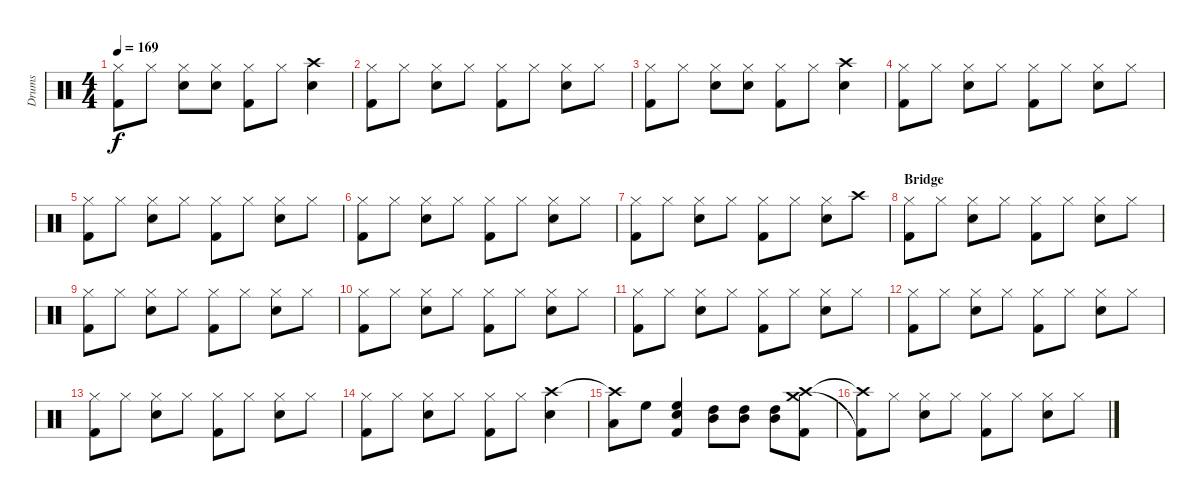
\track ("Drums" "Drums") {instrument percussion}
\staff {score}
\articulation defaults
\ts (4 4)
\tempo 169
\clef neutral
\ks c
("Hi-Hat (closed)" "Kick (hit) 2").8{dy f} "Hi-Hat (closed)".8 ("Hi-Hat (closed)" "Snare (hit) 2").8 ("Hi-Hat (closed)" "Snare (hit) 2").8 ("Hi-Hat (closed)" "Kick (hit) 2").8 "Hi-Hat (closed)".8 ("Crash high (hit)" "Snare (hit) 2").4 |
("Hi-Hat (closed)" "Kick (hit) 2").8 "Hi-Hat (closed)".8 ("Hi-Hat (closed)" "Snare (hit) 2").8 "Hi-Hat (closed)".8 ("Hi-Hat (closed)" "Kick (hit) 2").8 "Hi-Hat (closed)".8 ("Hi-Hat (closed)" "Snare (hit) 2").8 "Hi-Hat (closed)".8 |
("Hi-Hat (closed)" "Kick (hit) 2").8 "Hi-Hat (closed)".8 ("Hi-Hat (closed)" "Snare (hit) 2").8 ("Hi-Hat (closed)" "Snare (hit) 2").8 ("Hi-Hat (closed)" "Kick (hit) 2").8 "Hi-Hat (closed)".8 ("Crash high (hit)" "Snare (hit) 2").4 |
("Hi-Hat (closed)" "Kick (hit) 2").8 "Hi-Hat (closed)".8 ("Hi-Hat (closed)" "Snare (hit) 2").8 "Hi-Hat (closed)".8 ("Hi-Hat (closed)" "Kick (hit) 2").8 "Hi-Hat (closed)".8 ("Hi-Hat (closed)" "Snare (hit) 2").8 "Hi-Hat (closed)".8 |
("Hi-Hat (closed)" "Kick (hit) 2").8 "Hi-Hat (closed)".8 ("Hi-Hat (closed)" "Snare (hit) 2").8 "Hi-Hat (closed)".8 ("Hi-Hat (closed)" "Kick (hit) 2").8 "Hi-Hat (closed)".8 ("Hi-Hat (closed)" "Snare (hit) 2").8 "Hi-Hat (closed)".8 |
("Hi-Hat (closed)" "Kick (hit) 2").8 "Hi-Hat (closed)".8 ("Hi-Hat (closed)" "Snare (hit) 2").8 "Hi-Hat (closed)".8 ("Hi-Hat (closed)" "Kick (hit) 2").8 "Hi-Hat (closed)".8 ("Hi-Hat (closed)" "Snare (hit) 2").8 "Hi-Hat (closed)".8 |
("Hi-Hat (closed)" "Kick (hit) 2").8 "Hi-Hat (closed)".8 ("Hi-Hat (closed)" "Snare (hit) 2").8 "Hi-Hat (closed)".8 ("Hi-Hat (closed)" "Kick (hit) 2").8 "Hi-Hat (closed)".8 ("Hi-Hat (closed)" "Snare (hit) 2").8 "Crash high (hit)".8 |
\section ("" "Bridge")
("Hi-Hat (closed)" "Kick (hit) 2").8 "Hi-Hat (closed)".8 ("Hi-Hat (closed)" "Snare (hit) 2").8 "Hi-Hat (closed)".8 ("Hi-Hat (closed)" "Kick (hit) 2").8 "Hi-Hat (closed)".8 ("Hi-Hat (closed)" "Snare (hit) 2").8 "Hi-Hat (closed)".8 |
("Hi-Hat (closed)" "Kick (hit) 2").8 "Hi-Hat (closed)".8 ("Hi-Hat (closed)" "Snare (hit) 2").8 "Hi-Hat (closed)".8 ("Hi-Hat (closed)" "Kick (hit) 2").8 "Hi-Hat (closed)".8 ("Hi-Hat (closed)" "Snare (hit) 2").8 "Hi-Hat (closed)".8 |
("Hi-Hat (closed)" "Kick (hit) 2").8 "Hi-Hat (closed)".8 ("Hi-Hat (closed)" "Snare (hit) 2").8 "Hi-Hat (closed)".8 ("Hi-Hat (closed)" "Kick (hit) 2").8 "Hi-Hat (closed)".8 ("Hi-Hat (closed)" "Snare (hit) 2").8 "Hi-Hat (closed)".8 |
("Hi-Hat (closed)" "Kick (hit) 2").8 "Hi-Hat (closed)".8 ("Hi-Hat (closed)" "Snare (hit) 2").8 "Hi-Hat (closed)".8 ("Hi-Hat (closed)" "Kick (hit) 2").8 "Hi-Hat (closed)".8 ("Hi-Hat (closed)" "Snare (hit) 2").8 "Hi-Hat (closed)".8 |
("Hi-Hat (closed)" "Kick (hit) 2").8 "Hi-Hat (closed)".8 ("Hi-Hat (closed)" "Snare (hit) 2").8 "Hi-Hat (closed)".8 ("Hi-Hat (closed)" "Kick (hit) 2").8 "Hi-Hat (closed)".8 ("Hi-Hat (closed)" "Snare (hit) 2").8 "Hi-Hat (closed)".8 |
("Hi-Hat (closed)" "Kick (hit) 2").8 "Hi-Hat (closed)".8 ("Hi-Hat (closed)" "Snare (hit) 2").8 "Hi-Hat (closed)".8 ("Hi-Hat (closed)" "Kick (hit) 2").8 "Hi-Hat (closed)".8 ("Hi-Hat (closed)" "Snare (hit) 2").8 "Hi-Hat (closed)".8 |
("Hi-Hat (closed)" "Kick (hit) 2").8 "Hi-Hat (closed)".8 ("Hi-Hat (closed)" "Snare (hit) 2").8 "Hi-Hat (closed)".8 ("Hi-Hat (closed)" "Kick (hit) 2").8 "Hi-Hat (closed)".8 ("Crash high (hit)" "Snare (hit) 2").4 |
("Crash high (hit)"{t} "Low Tom (hit)").8 "High Floor Tom (hit)".8 ("High Floor Tom (hit)" "Electric Snare (hit)" "Kick (hit) 2").4 ("High Tom (hit)" "Mid Tom (hit)").8 ("High Tom (hit)" "Mid Tom (hit)").8 ("High Tom (hit)" "Mid Tom (hit)").8 ("Crash high (hit)" "Crash medium (hit)" "Kick (hit) 2").8 |
("Crash high (hit)"{t} "Kick (hit) 2"{t}).8 "Hi-Hat (closed)".8 ("Hi-Hat (closed)" "Snare (hit) 2").8 "Hi-Hat (closed)".8 ("Hi-Hat (closed)" "Kick (hit) 2").8 "Hi-Hat (closed)".8 ("Hi-Hat (closed)" "Snare (hit) 2").8 "Hi-Hat (closed)".8
